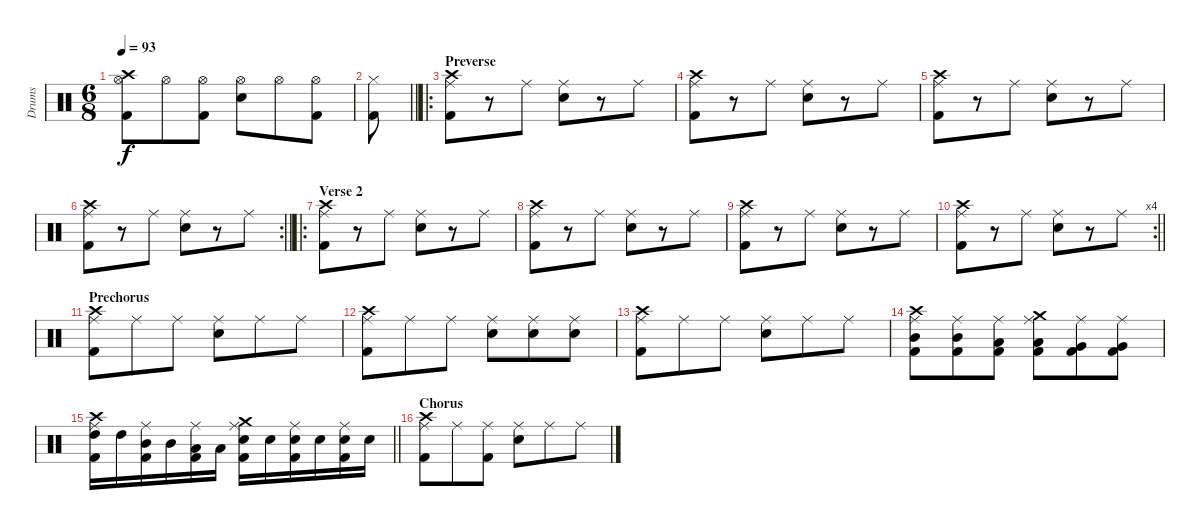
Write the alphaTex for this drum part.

\track ("Drums" "Drums") {instrument percussion}
\staff {score}
\articulation defaults
\ts (6 8)
\tempo 93
\clef neutral
\ks c
("Crash high (hit)" "Hi-Hat (open)" "Kick (hit) 2").8{dy f} "Hi-Hat (open)".8 ("Hi-Hat (open)" "Kick (hit) 2").8 ("Hi-Hat (open)" "Snare (hit) 2").8 "Hi-Hat (open)".8 ("Hi-Hat (open)" "Kick (hit) 2").8 |
\barLineRight lightlight
("Hi-Hat (closed)" "Kick (hit) 2").8 |
\ro
\section ("" "Preverse")
("Crash high (hit)" "Ride (middle)" "Kick (hit) 2").8 r.8 "Ride (middle)".8 ("Ride (middle)" "Snare (hit) 2").8 r.8 "Ride (middle)".8 |
("Crash high (hit)" "Ride (middle)" "Kick (hit) 2").8 r.8 "Ride (middle)".8 ("Ride (middle)" "Snare (hit) 2").8 r.8 "Ride (middle)".8 |
("Crash high (hit)" "Ride (middle)" "Kick (hit) 2").8 r.8 "Ride (middle)".8 ("Ride (middle)" "Snare (hit) 2").8 r.8 "Ride (middle)".8 |
\rc 2
\barLineRight lightlight
("Crash high (hit)" "Ride (middle)" "Kick (hit) 2").8 r.8 "Ride (middle)".8 ("Ride (middle)" "Snare (hit) 2").8 r.8 "Ride (middle)".8 |
\ro
\section ("" "Verse 2")
("Crash high (hit)" "Ride (middle)" "Kick (hit) 2").8 r.8 "Ride (middle)".8 ("Ride (middle)" "Snare (hit) 2").8 r.8 "Ride (middle)".8 |
("Crash high (hit)" "Ride (middle)" "Kick (hit) 2").8 r.8 "Ride (middle)".8 ("Ride (middle)" "Snare (hit) 2").8 r.8 "Ride (middle)".8 |
("Crash high (hit)" "Ride (middle)" "Kick (hit) 2").8 r.8 "Ride (middle)".8 ("Ride (middle)" "Snare (hit) 2").8 r.8 "Ride (middle)".8 |
\rc 4
\barLineRight lightlight
("Crash high (hit)" "Ride (middle)" "Kick (hit) 2").8 r.8 "Ride (middle)".8 ("Ride (middle)" "Snare (hit) 2").8 r.8 "Ride (middle)".8 |
\section ("" "Prechorus")
("Crash high (hit)" "Ride (middle)" "Kick (hit) 2").8 "Ride (middle)".8 "Ride (middle)".8 ("Ride (middle)" "Snare (hit) 2").8 "Ride (middle)".8 "Ride (middle)".8 |
("Crash high (hit)" "Ride (middle)" "Kick (hit) 2").8 "Ride (middle)".8 "Ride (middle)".8 ("Ride (middle)" "Snare (hit) 2").8 ("Ride (middle)" "Snare (hit) 2").8 ("Ride (middle)" "Snare (hit) 2").8 |
("Crash high (hit)" "Ride (middle)" "Kick (hit) 2").8 "Ride (middle)".8 "Ride (middle)".8 ("Ride (middle)" "Snare (hit) 2").8 "Ride (middle)".8 "Ride (middle)".8 |
("Crash high (hit)" "Ride (middle)" "Mid Tom (hit)" "Kick (hit) 2").8 ("Ride (middle)" "Mid Tom (hit)" "Kick (hit) 2").8 ("Ride (middle)" "Low Tom (hit)" "Kick (hit) 2").8 ("Crash medium (hit)" "Ride (middle)" "Low Tom (hit)" "Kick (hit) 2").8 ("Ride (middle)" "Very Low Tom (hit)" "Kick (hit) 2").8 ("Ride (middle)" "Very Low Tom (hit)" "Kick (hit) 2").8 |
\barLineRight lightlight
("Crash high (hit)" "Ride (middle)" "High Tom (hit)" "Kick (hit) 2").16 "High Tom (hit)".16 ("Ride (middle)" "Mid Tom (hit)" "Kick (hit) 2").16 "Mid Tom (hit)".16 ("Ride (middle)" "Low Tom (hit)" "Kick (hit) 2").16 "Low Tom (hit)".16 ("Crash medium (hit)" "Ride (middle)" "Snare (hit) 2" "Kick (hit) 2").16 "Snare (hit) 2".16 ("Ride (middle)" "Snare (hit) 2" "Kick (hit) 2").16 "Snare (hit) 2".16 ("Ride (middle)" "Snare (hit) 2" "Kick (hit) 2").16 "Snare (hit) 2".16 |
\section ("" "Chorus")
("Crash high (hit)" "Ride (middle)" "Kick (hit) 2").8 "Ride (middle)".8 ("Ride (middle)" "Kick (hit) 2").8 ("Ride (middle)" "Snare (hit) 2").8 "Ride (middle)".8 "Ride (middle)".8
